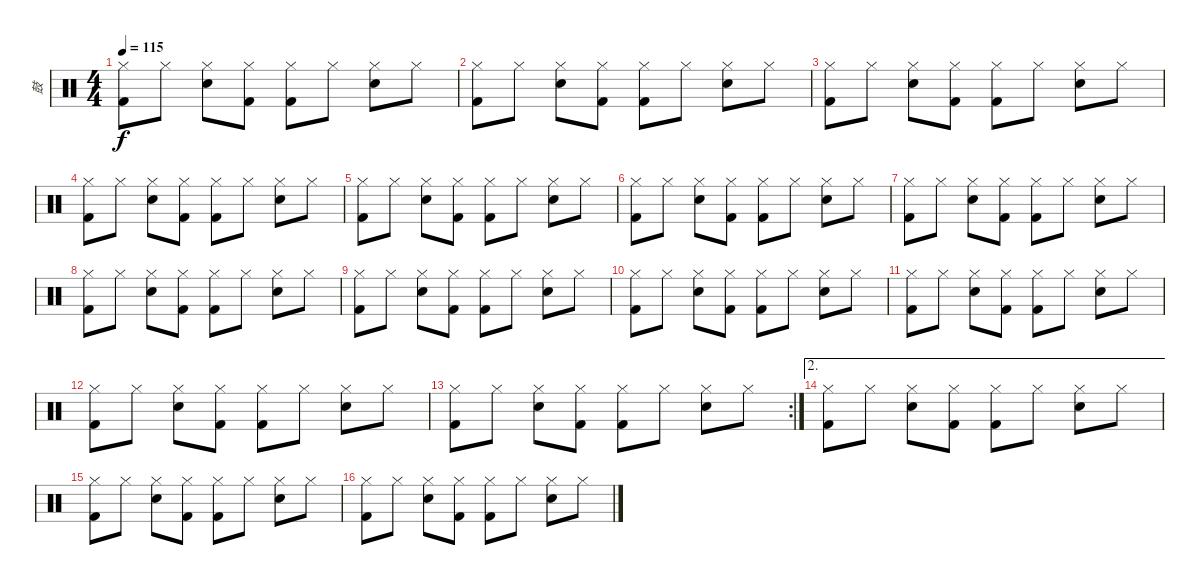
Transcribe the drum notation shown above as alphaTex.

\track ("鼓" "鼓") {instrument percussion}
\staff {score}
\articulation defaults
\ts (4 4)
\tempo 115
\clef neutral
\ks c
("Hi-Hat (closed)" "Kick (hit) 2").8{dy f} "Hi-Hat (closed)".8 ("Hi-Hat (closed)" "Electric Snare (hit)").8 ("Hi-Hat (closed)" "Kick (hit) 2").8 ("Hi-Hat (closed)" "Kick (hit) 2").8 "Hi-Hat (closed)".8 ("Hi-Hat (closed)" "Electric Snare (hit)").8 "Hi-Hat (closed)".8 |
("Hi-Hat (closed)" "Kick (hit) 2").8 "Hi-Hat (closed)".8 ("Hi-Hat (closed)" "Electric Snare (hit)").8 ("Hi-Hat (closed)" "Kick (hit) 2").8 ("Hi-Hat (closed)" "Kick (hit) 2").8 "Hi-Hat (closed)".8 ("Hi-Hat (closed)" "Electric Snare (hit)").8 "Hi-Hat (closed)".8 |
("Hi-Hat (closed)" "Kick (hit) 2").8 "Hi-Hat (closed)".8 ("Hi-Hat (closed)" "Electric Snare (hit)").8 ("Hi-Hat (closed)" "Kick (hit) 2").8 ("Hi-Hat (closed)" "Kick (hit) 2").8 "Hi-Hat (closed)".8 ("Hi-Hat (closed)" "Electric Snare (hit)").8 "Hi-Hat (closed)".8 |
("Hi-Hat (closed)" "Kick (hit) 2").8 "Hi-Hat (closed)".8 ("Hi-Hat (closed)" "Electric Snare (hit)").8 ("Hi-Hat (closed)" "Kick (hit) 2").8 ("Hi-Hat (closed)" "Kick (hit) 2").8 "Hi-Hat (closed)".8 ("Hi-Hat (closed)" "Electric Snare (hit)").8 "Hi-Hat (closed)".8 |
("Hi-Hat (closed)" "Kick (hit) 2").8 "Hi-Hat (closed)".8 ("Hi-Hat (closed)" "Electric Snare (hit)").8 ("Hi-Hat (closed)" "Kick (hit) 2").8 ("Hi-Hat (closed)" "Kick (hit) 2").8 "Hi-Hat (closed)".8 ("Hi-Hat (closed)" "Electric Snare (hit)").8 "Hi-Hat (closed)".8 |
("Hi-Hat (closed)" "Kick (hit) 2").8 "Hi-Hat (closed)".8 ("Hi-Hat (closed)" "Electric Snare (hit)").8 ("Hi-Hat (closed)" "Kick (hit) 2").8 ("Hi-Hat (closed)" "Kick (hit) 2").8 "Hi-Hat (closed)".8 ("Hi-Hat (closed)" "Electric Snare (hit)").8 "Hi-Hat (closed)".8 |
("Hi-Hat (closed)" "Kick (hit) 2").8 "Hi-Hat (closed)".8 ("Hi-Hat (closed)" "Electric Snare (hit)").8 ("Hi-Hat (closed)" "Kick (hit) 2").8 ("Hi-Hat (closed)" "Kick (hit) 2").8 "Hi-Hat (closed)".8 ("Hi-Hat (closed)" "Electric Snare (hit)").8 "Hi-Hat (closed)".8 |
("Hi-Hat (closed)" "Kick (hit) 2").8 "Hi-Hat (closed)".8 ("Hi-Hat (closed)" "Electric Snare (hit)").8 ("Hi-Hat (closed)" "Kick (hit) 2").8 ("Hi-Hat (closed)" "Kick (hit) 2").8 "Hi-Hat (closed)".8 ("Hi-Hat (closed)" "Electric Snare (hit)").8 "Hi-Hat (closed)".8 |
("Hi-Hat (closed)" "Kick (hit) 2").8 "Hi-Hat (closed)".8 ("Hi-Hat (closed)" "Electric Snare (hit)").8 ("Hi-Hat (closed)" "Kick (hit) 2").8 ("Hi-Hat (closed)" "Kick (hit) 2").8 "Hi-Hat (closed)".8 ("Hi-Hat (closed)" "Electric Snare (hit)").8 "Hi-Hat (closed)".8 |
("Hi-Hat (closed)" "Kick (hit) 2").8 "Hi-Hat (closed)".8 ("Hi-Hat (closed)" "Electric Snare (hit)").8 ("Hi-Hat (closed)" "Kick (hit) 2").8 ("Hi-Hat (closed)" "Kick (hit) 2").8 "Hi-Hat (closed)".8 ("Hi-Hat (closed)" "Electric Snare (hit)").8 "Hi-Hat (closed)".8 |
("Hi-Hat (closed)" "Kick (hit) 2").8 "Hi-Hat (closed)".8 ("Hi-Hat (closed)" "Electric Snare (hit)").8 ("Hi-Hat (closed)" "Kick (hit) 2").8 ("Hi-Hat (closed)" "Kick (hit) 2").8 "Hi-Hat (closed)".8 ("Hi-Hat (closed)" "Electric Snare (hit)").8 "Hi-Hat (closed)".8 |
("Hi-Hat (closed)" "Kick (hit) 2").8 "Hi-Hat (closed)".8 ("Hi-Hat (closed)" "Electric Snare (hit)").8 ("Hi-Hat (closed)" "Kick (hit) 2").8 ("Hi-Hat (closed)" "Kick (hit) 2").8 "Hi-Hat (closed)".8 ("Hi-Hat (closed)" "Electric Snare (hit)").8 "Hi-Hat (closed)".8 |
\rc 2
("Hi-Hat (closed)" "Kick (hit) 2").8 "Hi-Hat (closed)".8 ("Hi-Hat (closed)" "Electric Snare (hit)").8 ("Hi-Hat (closed)" "Kick (hit) 2").8 ("Hi-Hat (closed)" "Kick (hit) 2").8 "Hi-Hat (closed)".8 ("Hi-Hat (closed)" "Electric Snare (hit)").8 "Hi-Hat (closed)".8 |
\ae 2
("Hi-Hat (closed)" "Kick (hit) 2").8 "Hi-Hat (closed)".8 ("Hi-Hat (closed)" "Electric Snare (hit)").8 ("Hi-Hat (closed)" "Kick (hit) 2").8 ("Hi-Hat (closed)" "Kick (hit) 2").8 "Hi-Hat (closed)".8 ("Hi-Hat (closed)" "Electric Snare (hit)").8 "Hi-Hat (closed)".8 |
("Hi-Hat (closed)" "Kick (hit) 2").8 "Hi-Hat (closed)".8 ("Hi-Hat (closed)" "Electric Snare (hit)").8 ("Hi-Hat (closed)" "Kick (hit) 2").8 ("Hi-Hat (closed)" "Kick (hit) 2").8 "Hi-Hat (closed)".8 ("Hi-Hat (closed)" "Electric Snare (hit)").8 "Hi-Hat (closed)".8 |
("Hi-Hat (closed)" "Kick (hit) 2").8 "Hi-Hat (closed)".8 ("Hi-Hat (closed)" "Electric Snare (hit)").8 ("Hi-Hat (closed)" "Kick (hit) 2").8 ("Hi-Hat (closed)" "Kick (hit) 2").8 "Hi-Hat (closed)".8 ("Hi-Hat (closed)" "Electric Snare (hit)").8 "Hi-Hat (closed)".8
